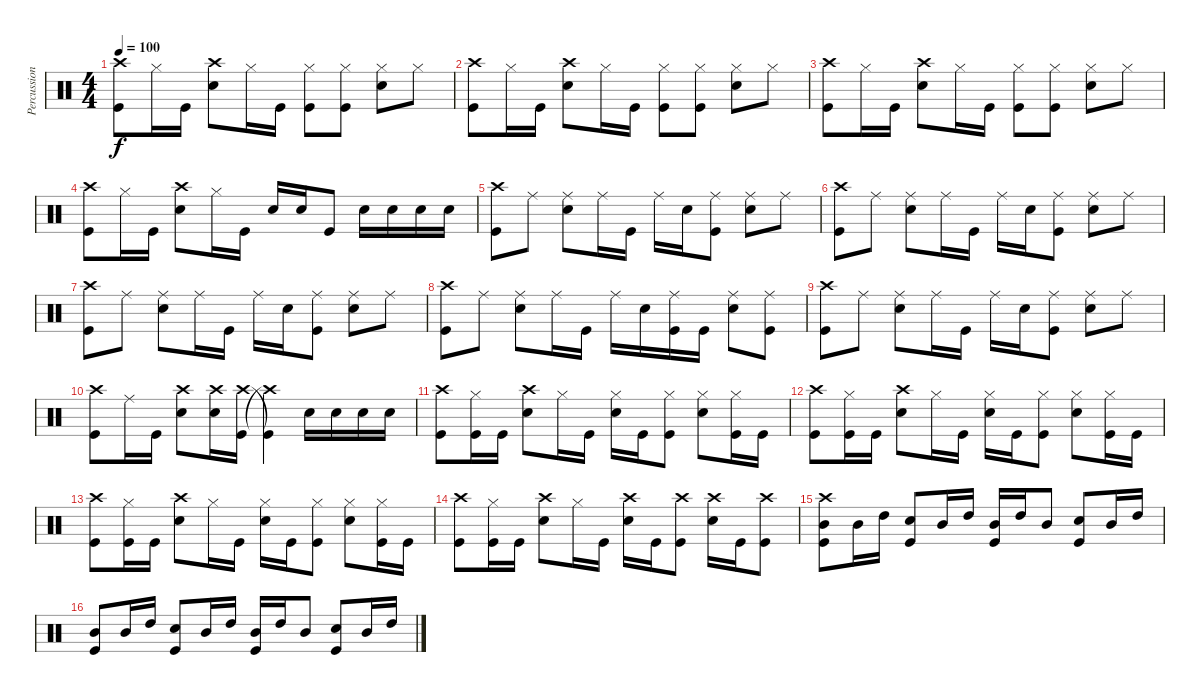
\track ("Percussions" "Percussion") {instrument percussion}
\staff {score}
\articulation defaults
\ts (4 4)
\tempo 100
\clef neutral
\ks c
("Crash high (hit)" "Kick (hit)").8{dy f} "Hi-Hat (closed)".16 "Kick (hit)".16 ("Crash high (hit)" "Snare (hit) 2").8 "Hi-Hat (closed)".16 "Kick (hit)".16 ("Kick (hit)" "Hi-Hat (closed)").8 ("Kick (hit)" "Hi-Hat (closed)").8 ("Snare (hit) 2" "Hi-Hat (closed)").8 "Hi-Hat (closed)".8 |
("Crash high (hit)" "Kick (hit)").8 "Hi-Hat (closed)".16 "Kick (hit)".16 ("Crash high (hit)" "Snare (hit) 2").8 "Hi-Hat (closed)".16 "Kick (hit)".16 ("Kick (hit)" "Hi-Hat (closed)").8 ("Kick (hit)" "Hi-Hat (closed)").8 ("Snare (hit) 2" "Hi-Hat (closed)").8 "Hi-Hat (closed)".8 |
("Crash high (hit)" "Kick (hit)").8 "Hi-Hat (closed)".16 "Kick (hit)".16 ("Crash high (hit)" "Snare (hit) 2").8 "Hi-Hat (closed)".16 "Kick (hit)".16 ("Kick (hit)" "Hi-Hat (closed)").8 ("Kick (hit)" "Hi-Hat (closed)").8 ("Snare (hit) 2" "Hi-Hat (closed)").8 "Hi-Hat (closed)".8 |
("Crash high (hit)" "Kick (hit)").8 "Hi-Hat (closed)".16 "Kick (hit)".16 ("Crash high (hit)" "Snare (hit) 2").8 "Hi-Hat (closed)".16 "Kick (hit)".16 "Snare (hit) 2".16 "Snare (hit) 2".16 "Kick (hit)".8 "Snare (hit) 2".16 "Snare (hit) 2".16 "Snare (hit) 2".16 "Snare (hit) 2".16 |
("Crash high (hit)" "Kick (hit)").8 "Ride (middle)".8 ("Snare (hit) 2" "Ride (middle)").8 "Ride (middle)".16 "Kick (hit)".16 "Ride (middle)".16 "Snare (hit) 2".16 ("Kick (hit)" "Ride (middle)").8 ("Snare (hit) 2" "Ride (middle)").8 "Ride (middle)".8 |
("Crash high (hit)" "Kick (hit)").8 "Ride (middle)".8 ("Snare (hit) 2" "Ride (middle)").8 "Ride (middle)".16 "Kick (hit)".16 "Ride (middle)".16 "Snare (hit) 2".16 ("Kick (hit)" "Ride (middle)").8 ("Snare (hit) 2" "Ride (middle)").8 "Ride (middle)".8 |
("Crash high (hit)" "Kick (hit)").8 "Ride (middle)".8 ("Snare (hit) 2" "Ride (middle)").8 "Ride (middle)".16 "Kick (hit)".16 "Ride (middle)".16 "Snare (hit) 2".16 ("Kick (hit)" "Ride (middle)").8 ("Snare (hit) 2" "Ride (middle)").8 "Ride (middle)".8 |
("Crash high (hit)" "Kick (hit)").8 "Ride (middle)".8 ("Snare (hit) 2" "Ride (middle)").8 "Ride (middle)".16 "Kick (hit)".16 "Ride (middle)".16 "Snare (hit) 2".16 ("Kick (hit)" "Ride (middle)").16 "Kick (hit)".16 ("Ride (middle)" "Snare (hit) 2").8 ("Ride (middle)" "Kick (hit)").8 |
("Crash high (hit)" "Kick (hit)").8 "Ride (middle)".8 ("Snare (hit) 2" "Ride (middle)").8 "Ride (middle)".16 "Kick (hit)".16 "Ride (middle)".16 "Snare (hit) 2".16 ("Kick (hit)" "Ride (middle)").8 ("Snare (hit) 2" "Ride (middle)").8 "Ride (middle)".8 |
("Crash high (hit)" "Kick (hit)").8 "Ride (middle)".16 "Kick (hit)".16 ("Crash high (hit)" "Snare (hit) 2").8 ("Crash high (hit)" "Snare (hit) 2").16 ("Crash high (hit)" "Kick (hit)").16 ("Kick (hit)"{t} "Crash high (hit)"{t}).4 "Snare (hit) 2".16 "Snare (hit) 2".16 "Snare (hit) 2".16 "Snare (hit) 2".16 |
("Crash high (hit)" "Kick (hit)").8 ("Hi-Hat (closed)" "Kick (hit)").16 "Kick (hit)".16 ("Crash high (hit)" "Snare (hit) 2").8 "Hi-Hat (closed)".16 "Kick (hit)".16 ("Hi-Hat (closed)" "Snare (hit) 2").16 "Kick (hit)".16 ("Kick (hit)" "Hi-Hat (closed)").8 ("Hi-Hat (closed)" "Snare (hit) 2").8 ("Kick (hit)" "Hi-Hat (closed)").16 "Kick (hit)".16 |
("Crash high (hit)" "Kick (hit)").8 ("Hi-Hat (closed)" "Kick (hit)").16 "Kick (hit)".16 ("Crash high (hit)" "Snare (hit) 2").8 "Hi-Hat (closed)".16 "Kick (hit)".16 ("Hi-Hat (closed)" "Snare (hit) 2").16 "Kick (hit)".16 ("Kick (hit)" "Hi-Hat (closed)").8 ("Hi-Hat (closed)" "Snare (hit) 2").8 ("Kick (hit)" "Hi-Hat (closed)").16 "Kick (hit)".16 |
("Crash high (hit)" "Kick (hit)").8 ("Hi-Hat (closed)" "Kick (hit)").16 "Kick (hit)".16 ("Crash high (hit)" "Snare (hit) 2").8 "Hi-Hat (closed)".16 "Kick (hit)".16 ("Hi-Hat (closed)" "Snare (hit) 2").16 "Kick (hit)".16 ("Kick (hit)" "Hi-Hat (closed)").8 ("Hi-Hat (closed)" "Snare (hit) 2").8 ("Kick (hit)" "Hi-Hat (closed)").16 "Kick (hit)".16 |
("Crash high (hit)" "Kick (hit)").8 ("Hi-Hat (closed)" "Kick (hit)").16 "Kick (hit)".16 ("Crash high (hit)" "Snare (hit) 2").8 "Hi-Hat (closed)".16 "Kick (hit)".16 ("Crash high (hit)" "Snare (hit) 2").16 "Kick (hit)".16 ("Kick (hit)" "Crash high (hit)").8 ("Crash high (hit)" "Snare (hit) 2").16 "Kick (hit)".16 ("Kick (hit)" "Crash high (hit)").8 |
("Kick (hit)" "Mid Tom (hit)" "Crash high (hit)").8 "Mid Tom (hit)".16 "High Tom (hit)".16 ("Snare (hit) 2" "Kick (hit)").8 "Mid Tom (hit)".16 "High Tom (hit)".16 ("Kick (hit)" "Mid Tom (hit)").16 "High Tom (hit)".16 "Mid Tom (hit)".8 ("Snare (hit) 2" "Kick (hit)").8 "Mid Tom (hit)".16 "High Tom (hit)".16 |
("Kick (hit)" "Mid Tom (hit)").8 "Mid Tom (hit)".16 "High Tom (hit)".16 ("Snare (hit) 2" "Kick (hit)").8 "Mid Tom (hit)".16 "High Tom (hit)".16 ("Kick (hit)" "Mid Tom (hit)").16 "High Tom (hit)".16 "Mid Tom (hit)".8 ("Snare (hit) 2" "Kick (hit)").8 "Mid Tom (hit)".16 "High Tom (hit)".16
